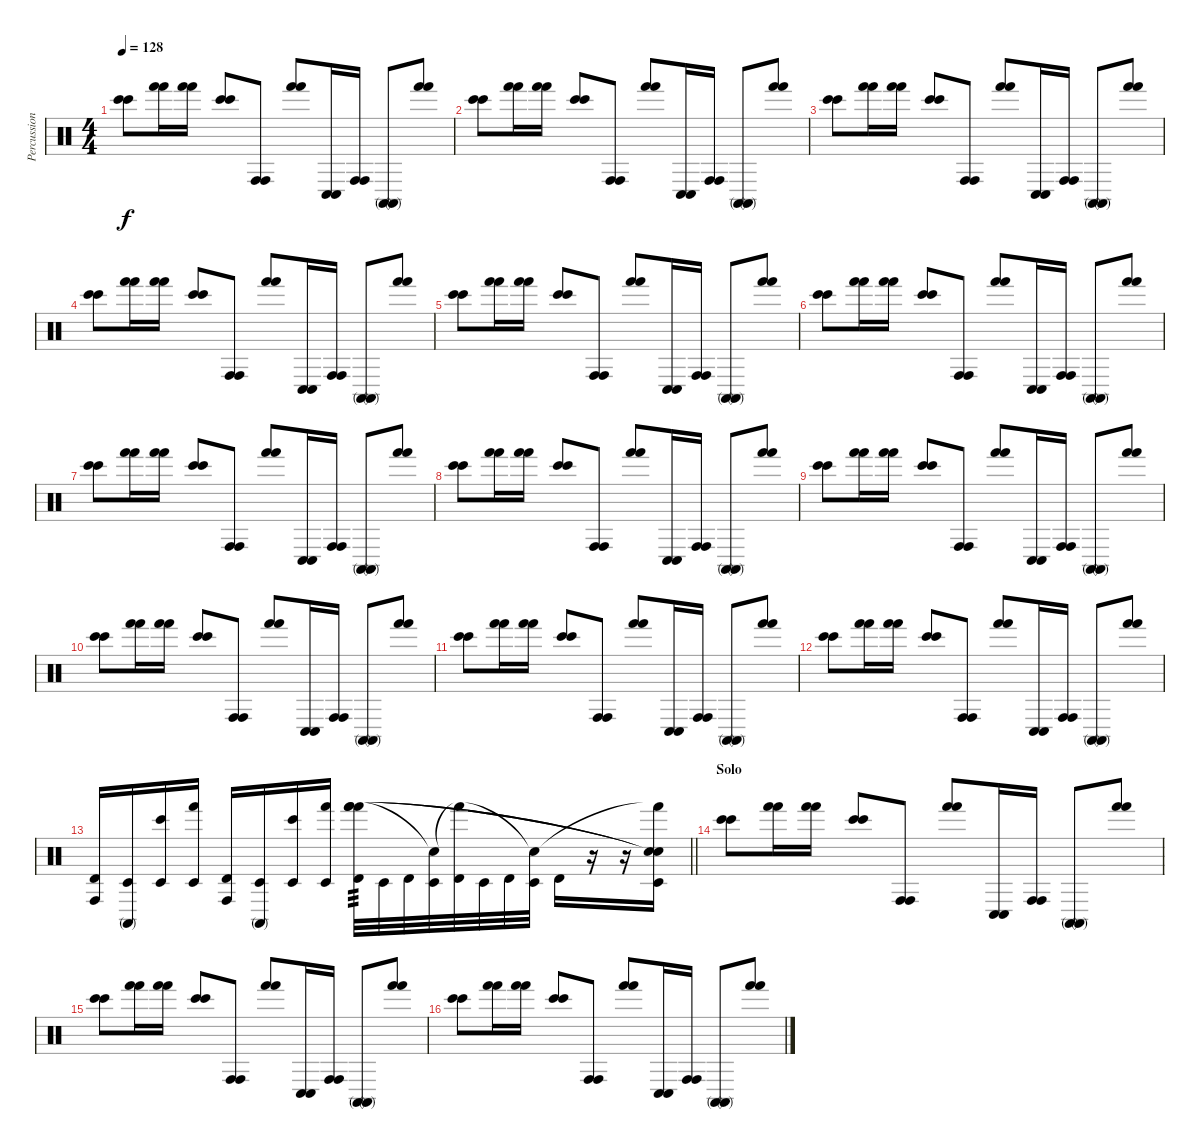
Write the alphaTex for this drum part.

\track ("Percussioni" "Percussion") {instrument percussion}
\staff {score}
\articulation defaults
\ts (4 4)
\tempo 128
\clef neutral
\ks c
("Bongo High (hit)" "Bongo High (hit)").8{dy f} ("Hand (hit)" "Hand (hit)").16 ("Hand (hit)" "Hand (hit)").16 ("Bongo High (hit)" "Bongo High (hit)").8 ("Conga high (hit)" "Conga high (hit)").8 ("Hand (hit)" "Hand (hit)").8 ("Conga low (hit)" "Conga low (hit)").16 ("Conga high (hit)" "Conga high (hit)").16 ("Conga high (mute)" "Conga high (mute)").8 ("Hand (hit)" "Hand (hit)").8 |
("Bongo High (hit)" "Bongo High (hit)").8 ("Hand (hit)" "Hand (hit)").16 ("Hand (hit)" "Hand (hit)").16 ("Bongo High (hit)" "Bongo High (hit)").8 ("Conga high (hit)" "Conga high (hit)").8 ("Hand (hit)" "Hand (hit)").8 ("Conga low (hit)" "Conga low (hit)").16 ("Conga high (hit)" "Conga high (hit)").16 ("Conga high (mute)" "Conga high (mute)").8 ("Hand (hit)" "Hand (hit)").8 |
("Bongo High (hit)" "Bongo High (hit)").8 ("Hand (hit)" "Hand (hit)").16 ("Hand (hit)" "Hand (hit)").16 ("Bongo High (hit)" "Bongo High (hit)").8 ("Conga high (hit)" "Conga high (hit)").8 ("Hand (hit)" "Hand (hit)").8 ("Conga low (hit)" "Conga low (hit)").16 ("Conga high (hit)" "Conga high (hit)").16 ("Conga high (mute)" "Conga high (mute)").8 ("Hand (hit)" "Hand (hit)").8 |
("Bongo High (hit)" "Bongo High (hit)").8 ("Hand (hit)" "Hand (hit)").16 ("Hand (hit)" "Hand (hit)").16 ("Bongo High (hit)" "Bongo High (hit)").8 ("Conga high (hit)" "Conga high (hit)").8 ("Hand (hit)" "Hand (hit)").8 ("Conga low (hit)" "Conga low (hit)").16 ("Conga high (hit)" "Conga high (hit)").16 ("Conga high (mute)" "Conga high (mute)").8 ("Hand (hit)" "Hand (hit)").8 |
("Bongo High (hit)" "Bongo High (hit)").8 ("Hand (hit)" "Hand (hit)").16 ("Hand (hit)" "Hand (hit)").16 ("Bongo High (hit)" "Bongo High (hit)").8 ("Conga high (hit)" "Conga high (hit)").8 ("Hand (hit)" "Hand (hit)").8 ("Conga low (hit)" "Conga low (hit)").16 ("Conga high (hit)" "Conga high (hit)").16 ("Conga high (mute)" "Conga high (mute)").8 ("Hand (hit)" "Hand (hit)").8 |
("Bongo High (hit)" "Bongo High (hit)").8 ("Hand (hit)" "Hand (hit)").16 ("Hand (hit)" "Hand (hit)").16 ("Bongo High (hit)" "Bongo High (hit)").8 ("Conga high (hit)" "Conga high (hit)").8 ("Hand (hit)" "Hand (hit)").8 ("Conga low (hit)" "Conga low (hit)").16 ("Conga high (hit)" "Conga high (hit)").16 ("Conga high (mute)" "Conga high (mute)").8 ("Hand (hit)" "Hand (hit)").8 |
("Bongo High (hit)" "Bongo High (hit)").8 ("Hand (hit)" "Hand (hit)").16 ("Hand (hit)" "Hand (hit)").16 ("Bongo High (hit)" "Bongo High (hit)").8 ("Conga high (hit)" "Conga high (hit)").8 ("Hand (hit)" "Hand (hit)").8 ("Conga low (hit)" "Conga low (hit)").16 ("Conga high (hit)" "Conga high (hit)").16 ("Conga high (mute)" "Conga high (mute)").8 ("Hand (hit)" "Hand (hit)").8 |
("Bongo High (hit)" "Bongo High (hit)").8 ("Hand (hit)" "Hand (hit)").16 ("Hand (hit)" "Hand (hit)").16 ("Bongo High (hit)" "Bongo High (hit)").8 ("Conga high (hit)" "Conga high (hit)").8 ("Hand (hit)" "Hand (hit)").8 ("Conga low (hit)" "Conga low (hit)").16 ("Conga high (hit)" "Conga high (hit)").16 ("Conga high (mute)" "Conga high (mute)").8 ("Hand (hit)" "Hand (hit)").8 |
("Bongo High (hit)" "Bongo High (hit)").8 ("Hand (hit)" "Hand (hit)").16 ("Hand (hit)" "Hand (hit)").16 ("Bongo High (hit)" "Bongo High (hit)").8 ("Conga high (hit)" "Conga high (hit)").8 ("Hand (hit)" "Hand (hit)").8 ("Conga low (hit)" "Conga low (hit)").16 ("Conga high (hit)" "Conga high (hit)").16 ("Conga high (mute)" "Conga high (mute)").8 ("Hand (hit)" "Hand (hit)").8 |
("Bongo High (hit)" "Bongo High (hit)").8 ("Hand (hit)" "Hand (hit)").16 ("Hand (hit)" "Hand (hit)").16 ("Bongo High (hit)" "Bongo High (hit)").8 ("Conga high (hit)" "Conga high (hit)").8 ("Hand (hit)" "Hand (hit)").8 ("Conga low (hit)" "Conga low (hit)").16 ("Conga high (hit)" "Conga high (hit)").16 ("Conga high (mute)" "Conga high (mute)").8 ("Hand (hit)" "Hand (hit)").8 |
("Bongo High (hit)" "Bongo High (hit)").8 ("Hand (hit)" "Hand (hit)").16 ("Hand (hit)" "Hand (hit)").16 ("Bongo High (hit)" "Bongo High (hit)").8 ("Conga high (hit)" "Conga high (hit)").8 ("Hand (hit)" "Hand (hit)").8 ("Conga low (hit)" "Conga low (hit)").16 ("Conga high (hit)" "Conga high (hit)").16 ("Conga high (mute)" "Conga high (mute)").8 ("Hand (hit)" "Hand (hit)").8 |
("Bongo High (hit)" "Bongo High (hit)").8 ("Hand (hit)" "Hand (hit)").16 ("Hand (hit)" "Hand (hit)").16 ("Bongo High (hit)" "Bongo High (hit)").8 ("Conga high (hit)" "Conga high (hit)").8 ("Hand (hit)" "Hand (hit)").8 ("Conga low (hit)" "Conga low (hit)").16 ("Conga high (hit)" "Conga high (hit)").16 ("Conga high (mute)" "Conga high (mute)").8 ("Hand (hit)" "Hand (hit)").8 |
\barLineRight lightlight
("Timbale high (hit)" "Conga high (hit)").16 ("Timbale low (hit)" "Conga high (mute)").16 ("Timbale low (hit)" "Bongo High (hit)").16 ("Timbale low (hit)" "Hand (hit)").16 ("Timbale high (hit)" "Conga high (hit)").16 ("Timbale low (hit)" "Conga high (mute)").16 ("Timbale low (hit)" "Bongo High (hit)").16 ("Timbale low (hit)" "Hand (hit)").16 ("Timbale high (hit)" "Hand (hit)" "Hand (hit)" "Hand (hit)").32{tp 3} "Timbale low (hit)".32 "Timbale high (hit)".32 ("Timbale low (hit)" "Snare (hit)"{t}).32 ("Timbale high (hit)" "Hand (hit)"{t}).32 "Timbale low (hit)".32 "Timbale high (hit)".32 ("Timbale low (hit)" "Snare (hit)"{t}).32 "Timbale high (hit)".16 r.16 r.16 ("Timbale low (hit)" "Hand (hit)"{t} "Snare (hit)"{t} "Snare (hit)"{t}).16 |
\section ("" "Solo")
("Bongo High (hit)" "Bongo High (hit)").8 ("Hand (hit)" "Hand (hit)").16 ("Hand (hit)" "Hand (hit)").16 ("Bongo High (hit)" "Bongo High (hit)").8 ("Conga high (hit)" "Conga high (hit)").8 ("Hand (hit)" "Hand (hit)").8 ("Conga low (hit)" "Conga low (hit)").16 ("Conga high (hit)" "Conga high (hit)").16 ("Conga high (mute)" "Conga high (mute)").8 ("Hand (hit)" "Hand (hit)").8 |
("Bongo High (hit)" "Bongo High (hit)").8 ("Hand (hit)" "Hand (hit)").16 ("Hand (hit)" "Hand (hit)").16 ("Bongo High (hit)" "Bongo High (hit)").8 ("Conga high (hit)" "Conga high (hit)").8 ("Hand (hit)" "Hand (hit)").8 ("Conga low (hit)" "Conga low (hit)").16 ("Conga high (hit)" "Conga high (hit)").16 ("Conga high (mute)" "Conga high (mute)").8 ("Hand (hit)" "Hand (hit)").8 |
("Bongo High (hit)" "Bongo High (hit)").8 ("Hand (hit)" "Hand (hit)").16 ("Hand (hit)" "Hand (hit)").16 ("Bongo High (hit)" "Bongo High (hit)").8 ("Conga high (hit)" "Conga high (hit)").8 ("Hand (hit)" "Hand (hit)").8 ("Conga low (hit)" "Conga low (hit)").16 ("Conga high (hit)" "Conga high (hit)").16 ("Conga high (mute)" "Conga high (mute)").8 ("Hand (hit)" "Hand (hit)").8
